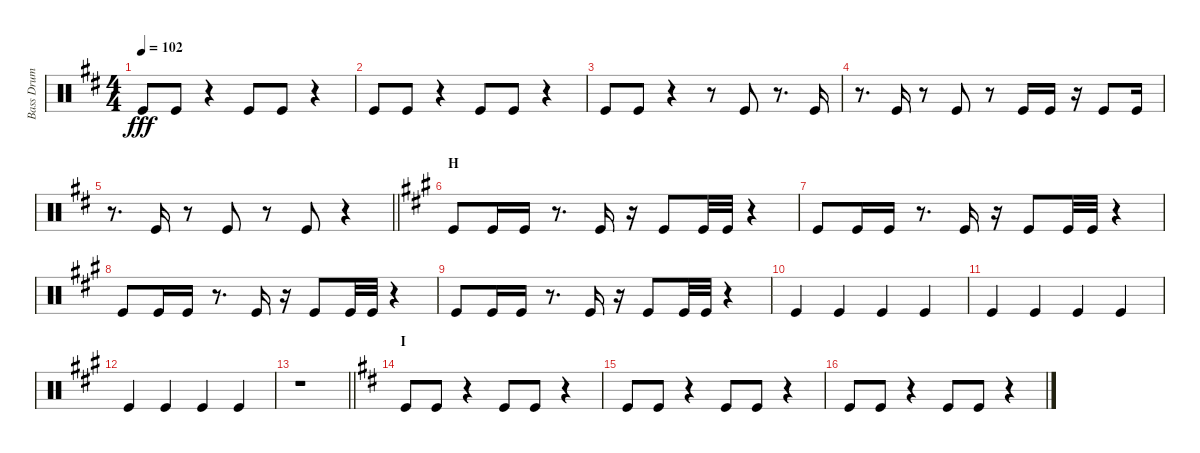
\track ("Bass Drum" "Bass Drum") {instrument percussion}
\staff {score}
\articulation defaults
\ts (4 4)
\tempo 102
\clef neutral
\ks d "Kick (hit)".8{dy fff} "Kick (hit)".8
r.4 "Kick (hit)".8 "Kick (hit)".8 r.4 |
"Kick (hit)".8 "Kick (hit)".8 r.4 "Kick (hit)".8 "Kick (hit)".8 r.4 |
"Kick (hit)".8 "Kick (hit)".8 r.4 r.8 "Kick (hit)".8 r.8{d} "Kick (hit)".16 |
r.8{d} "Kick (hit)".16 r.8 "Kick (hit)".8 r.8 "Kick (hit)".16 "Kick (hit)".16 r.16 "Kick (hit)".8 "Kick (hit)".16 |
\barLineRight lightlight
r.8{d} "Kick (hit)".16 r.8 "Kick (hit)".8 r.8 "Kick (hit)".8 r.4 |
\section ("" "H")
\ks a "Kick (hit)".8 "Kick (hit)".16 "Kick (hit)".16
r.8{d} "Kick (hit)".16 r.16 "Kick (hit)".8 "Kick (hit)".32 "Kick (hit)".32 r.4 |
"Kick (hit)".8 "Kick (hit)".16 "Kick (hit)".16 r.8{d} "Kick (hit)".16 r.16 "Kick (hit)".8 "Kick (hit)".32 "Kick (hit)".32 r.4 |
"Kick (hit)".8 "Kick (hit)".16 "Kick (hit)".16 r.8{d} "Kick (hit)".16 r.16 "Kick (hit)".8 "Kick (hit)".32 "Kick (hit)".32 r.4 |
"Kick (hit)".8 "Kick (hit)".16 "Kick (hit)".16 r.8{d} "Kick (hit)".16 r.16 "Kick (hit)".8 "Kick (hit)".32 "Kick (hit)".32 r.4 |
"Kick (hit)".4 "Kick (hit)".4 "Kick (hit)".4 "Kick (hit)".4 |
"Kick (hit)".4 "Kick (hit)".4 "Kick (hit)".4 "Kick (hit)".4 |
"Kick (hit)".4 "Kick (hit)".4 "Kick (hit)".4 "Kick (hit)".4 |
\barLineRight lightlight
r.1 |
\section ("" "I")
\ks d "Kick (hit)".8 "Kick (hit)".8
r.4 "Kick (hit)".8 "Kick (hit)".8 r.4 |
"Kick (hit)".8 "Kick (hit)".8 r.4 "Kick (hit)".8 "Kick (hit)".8 r.4 |
"Kick (hit)".8 "Kick (hit)".8 r.4 "Kick (hit)".8 "Kick (hit)".8 r.4
